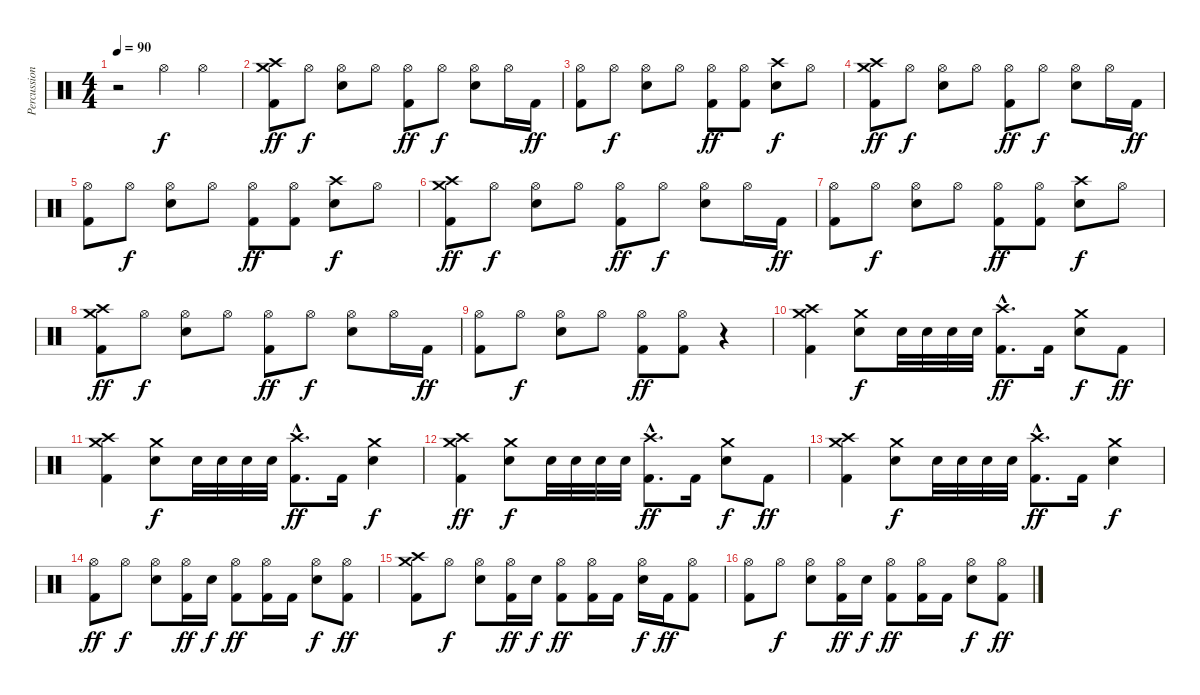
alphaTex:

\track ("Percussion" "Percussion") {instrument percussion}
\staff {score}
\articulation defaults
\ts (4 4)
\tempo 90
\clef neutral
\ks c
r.2{dy ff} "Hi-Hat (open)".4{dy f} "Hi-Hat (open)".4 |
("Crash medium (hit)" "Crash high (hit)" "Kick (hit) 2").8{dy ff} "Hi-Hat (open)".8{dy f} ("Hi-Hat (open)" "Electric Snare (hit)").8 "Hi-Hat (open)".8 ("Hi-Hat (open)" "Kick (hit) 2").8{dy ff} "Hi-Hat (open)".8{dy f} ("Hi-Hat (open)" "Electric Snare (hit)").8 "Hi-Hat (open)".16 "Kick (hit) 2".16{dy ff} |
("Hi-Hat (open)" "Kick (hit) 2").8 "Hi-Hat (open)".8{dy f} ("Hi-Hat (open)" "Electric Snare (hit)").8 "Hi-Hat (open)".8 ("Hi-Hat (open)" "Kick (hit) 2").8{dy ff} ("Hi-Hat (open)" "Kick (hit) 2").8 ("Crash high (hit)" "Electric Snare (hit)").8{dy f} "Hi-Hat (open)".8 |
("Crash medium (hit)" "Crash high (hit)" "Kick (hit) 2").8{dy ff} "Hi-Hat (open)".8{dy f} ("Hi-Hat (open)" "Electric Snare (hit)").8 "Hi-Hat (open)".8 ("Hi-Hat (open)" "Kick (hit) 2").8{dy ff} "Hi-Hat (open)".8{dy f} ("Hi-Hat (open)" "Electric Snare (hit)").8 "Hi-Hat (open)".16 "Kick (hit) 2".16{dy ff} |
("Hi-Hat (open)" "Kick (hit) 2").8 "Hi-Hat (open)".8{dy f} ("Hi-Hat (open)" "Electric Snare (hit)").8 "Hi-Hat (open)".8 ("Hi-Hat (open)" "Kick (hit) 2").8{dy ff} ("Hi-Hat (open)" "Kick (hit) 2").8 ("Crash high (hit)" "Electric Snare (hit)").8{dy f} "Hi-Hat (open)".8 |
("Crash medium (hit)" "Crash high (hit)" "Kick (hit) 2").8{dy ff} "Hi-Hat (open)".8{dy f} ("Hi-Hat (open)" "Electric Snare (hit)").8 "Hi-Hat (open)".8 ("Hi-Hat (open)" "Kick (hit) 2").8{dy ff} "Hi-Hat (open)".8{dy f} ("Hi-Hat (open)" "Electric Snare (hit)").8 "Hi-Hat (open)".16 "Kick (hit) 2".16{dy ff} |
("Hi-Hat (open)" "Kick (hit) 2").8 "Hi-Hat (open)".8{dy f} ("Hi-Hat (open)" "Electric Snare (hit)").8 "Hi-Hat (open)".8 ("Hi-Hat (open)" "Kick (hit) 2").8{dy ff} ("Hi-Hat (open)" "Kick (hit) 2").8 ("Crash high (hit)" "Electric Snare (hit)").8{dy f} "Hi-Hat (open)".8 |
("Crash medium (hit)" "Crash high (hit)" "Kick (hit) 2").8{dy ff} "Hi-Hat (open)".8{dy f} ("Hi-Hat (open)" "Electric Snare (hit)").8 "Hi-Hat (open)".8 ("Hi-Hat (open)" "Kick (hit) 2").8{dy ff} "Hi-Hat (open)".8{dy f} ("Hi-Hat (open)" "Electric Snare (hit)").8 "Hi-Hat (open)".16 "Kick (hit) 2".16{dy ff} |
("Hi-Hat (open)" "Kick (hit) 2").8 "Hi-Hat (open)".8{dy f} ("Hi-Hat (open)" "Electric Snare (hit)").8 "Hi-Hat (open)".8 ("Hi-Hat (open)" "Kick (hit) 2").8{dy ff} ("Hi-Hat (open)" "Kick (hit) 2").8 r.4 |
("Crash medium (hit)" "Crash high (hit)" "Kick (hit) 2").4 ("Crash medium (hit)" "Electric Snare (hit)").8{dy f} "Electric Snare (hit)".32 "Electric Snare (hit)".32 "Electric Snare (hit)".32 "Electric Snare (hit)".32 ("Crash high (hit)"{hac} "Kick (hit) 2"{hac}).8{d dy ff} "Kick (hit) 2".16 ("Crash medium (hit)" "Electric Snare (hit)").8{dy f} "Kick (hit) 2".8{dy ff} |
("Crash medium (hit)" "Crash high (hit)" "Kick (hit) 2").4 ("Crash medium (hit)" "Electric Snare (hit)").8{dy f} "Electric Snare (hit)".32 "Electric Snare (hit)".32 "Electric Snare (hit)".32 "Electric Snare (hit)".32 ("Crash high (hit)"{hac} "Kick (hit) 2"{hac}).8{d dy ff} "Kick (hit) 2".16 ("Crash medium (hit)" "Electric Snare (hit)").4{dy f} |
("Crash medium (hit)" "Crash high (hit)" "Kick (hit) 2").4{dy ff} ("Crash medium (hit)" "Electric Snare (hit)").8{dy f} "Electric Snare (hit)".32 "Electric Snare (hit)".32 "Electric Snare (hit)".32 "Electric Snare (hit)".32 ("Crash high (hit)"{hac} "Kick (hit) 2"{hac}).8{d dy ff} "Kick (hit) 2".16 ("Crash medium (hit)" "Electric Snare (hit)").8{dy f} "Kick (hit) 2".8{dy ff} |
("Crash medium (hit)" "Crash high (hit)" "Kick (hit) 2").4 ("Crash medium (hit)" "Electric Snare (hit)").8{dy f} "Electric Snare (hit)".32 "Electric Snare (hit)".32 "Electric Snare (hit)".32 "Electric Snare (hit)".32 ("Crash high (hit)"{hac} "Kick (hit) 2"{hac}).8{d dy ff} "Kick (hit) 2".16 ("Crash medium (hit)" "Electric Snare (hit)").4{dy f} |
("Hi-Hat (open)" "Kick (hit) 2").8{dy ff} "Hi-Hat (open)".8{dy f} ("Hi-Hat (open)" "Electric Snare (hit)").8 ("Hi-Hat (open)" "Kick (hit) 2").16{dy ff} "Electric Snare (hit)".16{dy f} ("Hi-Hat (open)" "Kick (hit) 2").8{dy ff} ("Hi-Hat (open)" "Kick (hit) 2").16 "Kick (hit) 2".16 ("Hi-Hat (open)" "Electric Snare (hit)").8{dy f} ("Hi-Hat (open)" "Kick (hit) 2").8{dy ff} |
("Crash medium (hit)" "Crash high (hit)" "Kick (hit) 2").8 "Hi-Hat (open)".8{dy f} ("Hi-Hat (open)" "Electric Snare (hit)").8 ("Hi-Hat (open)" "Kick (hit) 2").16{dy ff} "Electric Snare (hit)".16{dy f} ("Hi-Hat (open)" "Kick (hit) 2").8{dy ff} ("Hi-Hat (open)" "Kick (hit) 2").16 "Kick (hit) 2".16 ("Hi-Hat (open)" "Electric Snare (hit)").16{dy f} "Kick (hit) 2".16{dy ff} ("Hi-Hat (open)" "Kick (hit) 2").8 |
("Hi-Hat (open)" "Kick (hit) 2").8 "Hi-Hat (open)".8{dy f} ("Hi-Hat (open)" "Electric Snare (hit)").8 ("Hi-Hat (open)" "Kick (hit) 2").16{dy ff} "Electric Snare (hit)".16{dy f} ("Hi-Hat (open)" "Kick (hit) 2").8{dy ff} ("Hi-Hat (open)" "Kick (hit) 2").16 "Kick (hit) 2".16 ("Hi-Hat (open)" "Electric Snare (hit)").8{dy f} ("Hi-Hat (open)" "Kick (hit) 2").8{dy ff}
